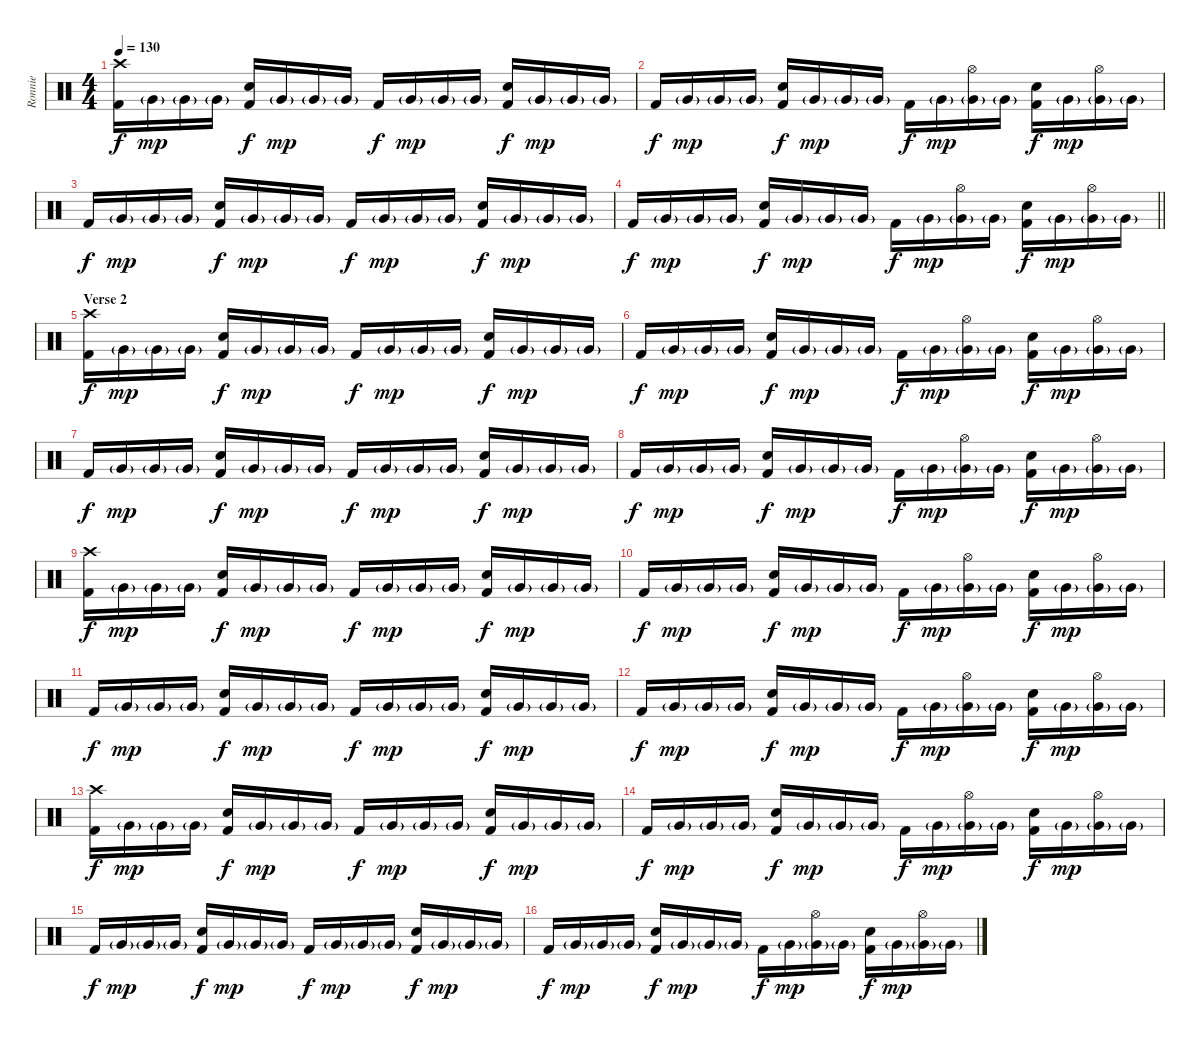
\track ("Ronnie" "Ronnie") {instrument percussion}
\staff {score}
\articulation defaults
\ts (4 4)
\tempo 130
\clef neutral
\ks c
("Kick (hit) 2" "Crash high (hit)").16{dy f} "Very Low Tom (hit)"{g}.16{dy mp} "Very Low Tom (hit)"{g}.16 "Very Low Tom (hit)"{g}.16 ("Electric Snare (hit)" "Kick (hit) 2").16{dy f} "Very Low Tom (hit)"{g}.16{dy mp} "Very Low Tom (hit)"{g}.16 "Very Low Tom (hit)"{g}.16 "Kick (hit) 2".16{dy f} "Very Low Tom (hit)"{g}.16{dy mp} "Very Low Tom (hit)"{g}.16 "Very Low Tom (hit)"{g}.16 ("Electric Snare (hit)" "Kick (hit) 2").16{dy f} "Very Low Tom (hit)"{g}.16{dy mp} "Very Low Tom (hit)"{g}.16 "Very Low Tom (hit)"{g}.16 |
"Kick (hit) 2".16{dy f} "Very Low Tom (hit)"{g}.16{dy mp} "Very Low Tom (hit)"{g}.16 "Very Low Tom (hit)"{g}.16 ("Electric Snare (hit)" "Kick (hit) 2").16{dy f} "Very Low Tom (hit)"{g}.16{dy mp} "Very Low Tom (hit)"{g}.16 "Very Low Tom (hit)"{g}.16 "Kick (hit) 2".16{dy f} "Very Low Tom (hit)"{g}.16{dy mp} ("Very Low Tom (hit)"{g} "Hi-Hat (open)").16 "Very Low Tom (hit)"{g}.16 ("Electric Snare (hit)" "Kick (hit) 2").16{dy f} "Very Low Tom (hit)"{g}.16{dy mp} ("Very Low Tom (hit)"{g} "Hi-Hat (open)").16 "Very Low Tom (hit)"{g}.16 |
"Kick (hit) 2".16{dy f} "Very Low Tom (hit)"{g}.16{dy mp} "Very Low Tom (hit)"{g}.16 "Very Low Tom (hit)"{g}.16 ("Electric Snare (hit)" "Kick (hit) 2").16{dy f} "Very Low Tom (hit)"{g}.16{dy mp} "Very Low Tom (hit)"{g}.16 "Very Low Tom (hit)"{g}.16 "Kick (hit) 2".16{dy f} "Very Low Tom (hit)"{g}.16{dy mp} "Very Low Tom (hit)"{g}.16 "Very Low Tom (hit)"{g}.16 ("Electric Snare (hit)" "Kick (hit) 2").16{dy f} "Very Low Tom (hit)"{g}.16{dy mp} "Very Low Tom (hit)"{g}.16 "Very Low Tom (hit)"{g}.16 |
\barLineRight lightlight "Kick (hit) 2".16{dy f} "Very Low Tom (hit)"{g}.16{dy mp} "Very Low Tom (hit)"{g}.16 "Very Low Tom (hit)"{g}.16
("Electric Snare (hit)" "Kick (hit) 2").16{dy f} "Very Low Tom (hit)"{g}.16{dy mp} "Very Low Tom (hit)"{g}.16 "Very Low Tom (hit)"{g}.16 "Kick (hit) 2".16{dy f} "Very Low Tom (hit)"{g}.16{dy mp} ("Very Low Tom (hit)"{g} "Hi-Hat (open)").16 "Very Low Tom (hit)"{g}.16 ("Electric Snare (hit)" "Kick (hit) 2").16{dy f} "Very Low Tom (hit)"{g}.16{dy mp} ("Very Low Tom (hit)"{g} "Hi-Hat (open)").16 "Very Low Tom (hit)"{g}.16 |
\section ("" "Verse 2")
("Kick (hit) 2" "Crash high (hit)").16{dy f} "Very Low Tom (hit)"{g}.16{dy mp} "Very Low Tom (hit)"{g}.16 "Very Low Tom (hit)"{g}.16 ("Electric Snare (hit)" "Kick (hit) 2").16{dy f} "Very Low Tom (hit)"{g}.16{dy mp} "Very Low Tom (hit)"{g}.16 "Very Low Tom (hit)"{g}.16 "Kick (hit) 2".16{dy f} "Very Low Tom (hit)"{g}.16{dy mp} "Very Low Tom (hit)"{g}.16 "Very Low Tom (hit)"{g}.16 ("Electric Snare (hit)" "Kick (hit) 2").16{dy f} "Very Low Tom (hit)"{g}.16{dy mp} "Very Low Tom (hit)"{g}.16 "Very Low Tom (hit)"{g}.16 |
"Kick (hit) 2".16{dy f} "Very Low Tom (hit)"{g}.16{dy mp} "Very Low Tom (hit)"{g}.16 "Very Low Tom (hit)"{g}.16 ("Electric Snare (hit)" "Kick (hit) 2").16{dy f} "Very Low Tom (hit)"{g}.16{dy mp} "Very Low Tom (hit)"{g}.16 "Very Low Tom (hit)"{g}.16 "Kick (hit) 2".16{dy f} "Very Low Tom (hit)"{g}.16{dy mp} ("Very Low Tom (hit)"{g} "Hi-Hat (open)").16 "Very Low Tom (hit)"{g}.16 ("Electric Snare (hit)" "Kick (hit) 2").16{dy f} "Very Low Tom (hit)"{g}.16{dy mp} ("Very Low Tom (hit)"{g} "Hi-Hat (open)").16 "Very Low Tom (hit)"{g}.16 |
"Kick (hit) 2".16{dy f} "Very Low Tom (hit)"{g}.16{dy mp} "Very Low Tom (hit)"{g}.16 "Very Low Tom (hit)"{g}.16 ("Electric Snare (hit)" "Kick (hit) 2").16{dy f} "Very Low Tom (hit)"{g}.16{dy mp} "Very Low Tom (hit)"{g}.16 "Very Low Tom (hit)"{g}.16 "Kick (hit) 2".16{dy f} "Very Low Tom (hit)"{g}.16{dy mp} "Very Low Tom (hit)"{g}.16 "Very Low Tom (hit)"{g}.16 ("Electric Snare (hit)" "Kick (hit) 2").16{dy f} "Very Low Tom (hit)"{g}.16{dy mp} "Very Low Tom (hit)"{g}.16 "Very Low Tom (hit)"{g}.16 |
"Kick (hit) 2".16{dy f} "Very Low Tom (hit)"{g}.16{dy mp} "Very Low Tom (hit)"{g}.16 "Very Low Tom (hit)"{g}.16 ("Electric Snare (hit)" "Kick (hit) 2").16{dy f} "Very Low Tom (hit)"{g}.16{dy mp} "Very Low Tom (hit)"{g}.16 "Very Low Tom (hit)"{g}.16 "Kick (hit) 2".16{dy f} "Very Low Tom (hit)"{g}.16{dy mp} ("Very Low Tom (hit)"{g} "Hi-Hat (open)").16 "Very Low Tom (hit)"{g}.16 ("Electric Snare (hit)" "Kick (hit) 2").16{dy f} "Very Low Tom (hit)"{g}.16{dy mp} ("Very Low Tom (hit)"{g} "Hi-Hat (open)").16 "Very Low Tom (hit)"{g}.16 |
("Kick (hit) 2" "Crash high (hit)").16{dy f} "Very Low Tom (hit)"{g}.16{dy mp} "Very Low Tom (hit)"{g}.16 "Very Low Tom (hit)"{g}.16 ("Electric Snare (hit)" "Kick (hit) 2").16{dy f} "Very Low Tom (hit)"{g}.16{dy mp} "Very Low Tom (hit)"{g}.16 "Very Low Tom (hit)"{g}.16 "Kick (hit) 2".16{dy f} "Very Low Tom (hit)"{g}.16{dy mp} "Very Low Tom (hit)"{g}.16 "Very Low Tom (hit)"{g}.16 ("Electric Snare (hit)" "Kick (hit) 2").16{dy f} "Very Low Tom (hit)"{g}.16{dy mp} "Very Low Tom (hit)"{g}.16 "Very Low Tom (hit)"{g}.16 |
"Kick (hit) 2".16{dy f} "Very Low Tom (hit)"{g}.16{dy mp} "Very Low Tom (hit)"{g}.16 "Very Low Tom (hit)"{g}.16 ("Electric Snare (hit)" "Kick (hit) 2").16{dy f} "Very Low Tom (hit)"{g}.16{dy mp} "Very Low Tom (hit)"{g}.16 "Very Low Tom (hit)"{g}.16 "Kick (hit) 2".16{dy f} "Very Low Tom (hit)"{g}.16{dy mp} ("Very Low Tom (hit)"{g} "Hi-Hat (open)").16 "Very Low Tom (hit)"{g}.16 ("Electric Snare (hit)" "Kick (hit) 2").16{dy f} "Very Low Tom (hit)"{g}.16{dy mp} ("Very Low Tom (hit)"{g} "Hi-Hat (open)").16 "Very Low Tom (hit)"{g}.16 |
"Kick (hit) 2".16{dy f} "Very Low Tom (hit)"{g}.16{dy mp} "Very Low Tom (hit)"{g}.16 "Very Low Tom (hit)"{g}.16 ("Electric Snare (hit)" "Kick (hit) 2").16{dy f} "Very Low Tom (hit)"{g}.16{dy mp} "Very Low Tom (hit)"{g}.16 "Very Low Tom (hit)"{g}.16 "Kick (hit) 2".16{dy f} "Very Low Tom (hit)"{g}.16{dy mp} "Very Low Tom (hit)"{g}.16 "Very Low Tom (hit)"{g}.16 ("Electric Snare (hit)" "Kick (hit) 2").16{dy f} "Very Low Tom (hit)"{g}.16{dy mp} "Very Low Tom (hit)"{g}.16 "Very Low Tom (hit)"{g}.16 |
"Kick (hit) 2".16{dy f} "Very Low Tom (hit)"{g}.16{dy mp} "Very Low Tom (hit)"{g}.16 "Very Low Tom (hit)"{g}.16 ("Electric Snare (hit)" "Kick (hit) 2").16{dy f} "Very Low Tom (hit)"{g}.16{dy mp} "Very Low Tom (hit)"{g}.16 "Very Low Tom (hit)"{g}.16 "Kick (hit) 2".16{dy f} "Very Low Tom (hit)"{g}.16{dy mp} ("Very Low Tom (hit)"{g} "Hi-Hat (open)").16 "Very Low Tom (hit)"{g}.16 ("Electric Snare (hit)" "Kick (hit) 2").16{dy f} "Very Low Tom (hit)"{g}.16{dy mp} ("Very Low Tom (hit)"{g} "Hi-Hat (open)").16 "Very Low Tom (hit)"{g}.16 |
("Kick (hit) 2" "Crash high (hit)").16{dy f} "Very Low Tom (hit)"{g}.16{dy mp} "Very Low Tom (hit)"{g}.16 "Very Low Tom (hit)"{g}.16 ("Electric Snare (hit)" "Kick (hit) 2").16{dy f} "Very Low Tom (hit)"{g}.16{dy mp} "Very Low Tom (hit)"{g}.16 "Very Low Tom (hit)"{g}.16 "Kick (hit) 2".16{dy f} "Very Low Tom (hit)"{g}.16{dy mp} "Very Low Tom (hit)"{g}.16 "Very Low Tom (hit)"{g}.16 ("Electric Snare (hit)" "Kick (hit) 2").16{dy f} "Very Low Tom (hit)"{g}.16{dy mp} "Very Low Tom (hit)"{g}.16 "Very Low Tom (hit)"{g}.16 |
"Kick (hit) 2".16{dy f} "Very Low Tom (hit)"{g}.16{dy mp} "Very Low Tom (hit)"{g}.16 "Very Low Tom (hit)"{g}.16 ("Electric Snare (hit)" "Kick (hit) 2").16{dy f} "Very Low Tom (hit)"{g}.16{dy mp} "Very Low Tom (hit)"{g}.16 "Very Low Tom (hit)"{g}.16 "Kick (hit) 2".16{dy f} "Very Low Tom (hit)"{g}.16{dy mp} ("Very Low Tom (hit)"{g} "Hi-Hat (open)").16 "Very Low Tom (hit)"{g}.16 ("Electric Snare (hit)" "Kick (hit) 2").16{dy f} "Very Low Tom (hit)"{g}.16{dy mp} ("Very Low Tom (hit)"{g} "Hi-Hat (open)").16 "Very Low Tom (hit)"{g}.16 |
"Kick (hit) 2".16{dy f} "Very Low Tom (hit)"{g}.16{dy mp} "Very Low Tom (hit)"{g}.16 "Very Low Tom (hit)"{g}.16 ("Electric Snare (hit)" "Kick (hit) 2").16{dy f} "Very Low Tom (hit)"{g}.16{dy mp} "Very Low Tom (hit)"{g}.16 "Very Low Tom (hit)"{g}.16 "Kick (hit) 2".16{dy f} "Very Low Tom (hit)"{g}.16{dy mp} "Very Low Tom (hit)"{g}.16 "Very Low Tom (hit)"{g}.16 ("Electric Snare (hit)" "Kick (hit) 2").16{dy f} "Very Low Tom (hit)"{g}.16{dy mp} "Very Low Tom (hit)"{g}.16 "Very Low Tom (hit)"{g}.16 |
"Kick (hit) 2".16{dy f} "Very Low Tom (hit)"{g}.16{dy mp} "Very Low Tom (hit)"{g}.16 "Very Low Tom (hit)"{g}.16 ("Electric Snare (hit)" "Kick (hit) 2").16{dy f} "Very Low Tom (hit)"{g}.16{dy mp} "Very Low Tom (hit)"{g}.16 "Very Low Tom (hit)"{g}.16 "Kick (hit) 2".16{dy f} "Very Low Tom (hit)"{g}.16{dy mp} ("Very Low Tom (hit)"{g} "Hi-Hat (open)").16 "Very Low Tom (hit)"{g}.16 ("Electric Snare (hit)" "Kick (hit) 2").16{dy f} "Very Low Tom (hit)"{g}.16{dy mp} ("Very Low Tom (hit)"{g} "Hi-Hat (open)").16 "Very Low Tom (hit)"{g}.16
